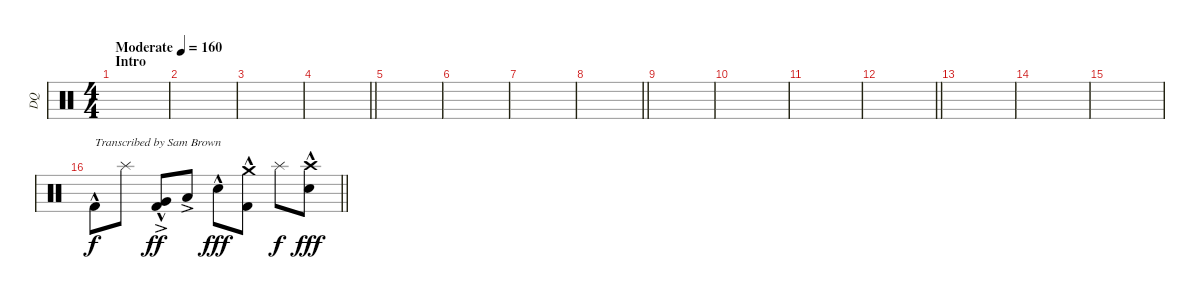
\track ("DQ" "DQ") {instrument percussion}
\staff {score}
\articulation defaults
\ts (4 4)
\section ("" "Intro")
\tempo (160 "Moderate")
\clef neutral
\ks c
|
|
|
\barLineRight lightlight
|
\section ("" "")
|
|
|
\barLineRight lightlight
|
\section ("" "")
|
|
|
\barLineRight lightlight
|
\section ("" "")
|
|
|
\barLineRight lightlight "Kick (hit) 2"{hac}.8{txt "Transcribed by Sam Brown"} "Splash (hit)".8{dy f}
("Kick (hit) 2"{hac} "Very Low Tom (hit)"{ac}).8{dy ff} "Low Floor Tom (hit)"{ac}.8 "Snare (hit) 2"{hac}.8{dy fff} ("Kick (hit) 2"{hac} "Crash medium (hit)").8 "Splash (hit)".8{dy f} ("Snare (hit) 2"{hac} "Crash high (hit)").8{dy fff}
